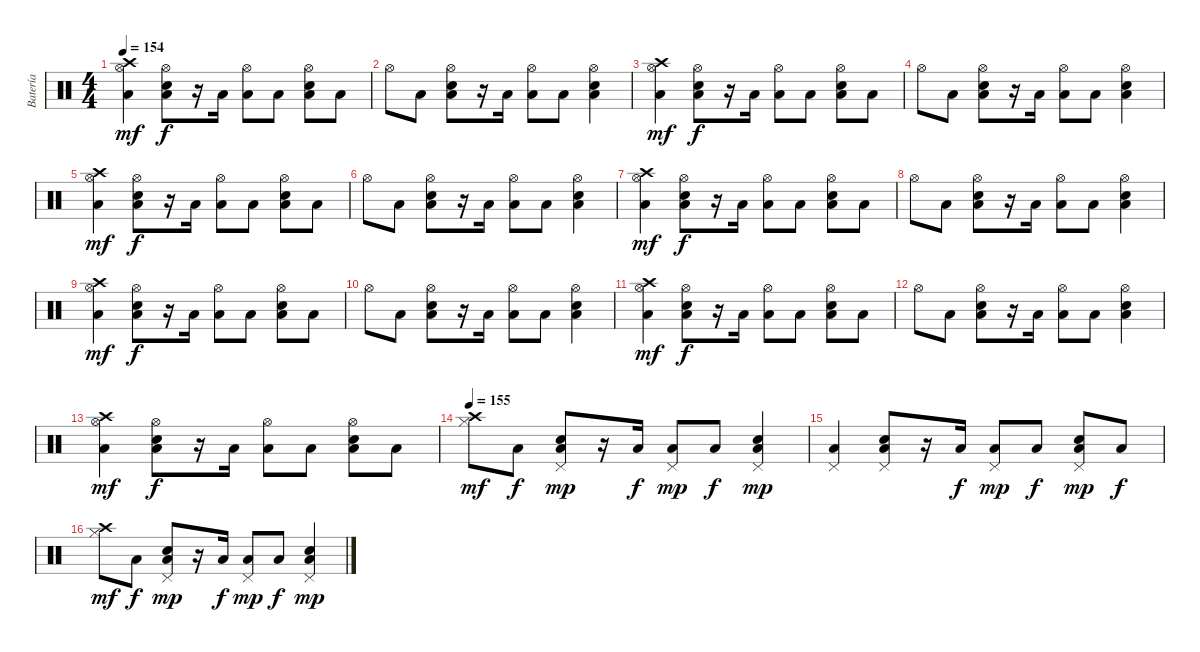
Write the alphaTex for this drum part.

\track ("Batería" "Batería") {instrument percussion}
\staff {score}
\articulation defaults
\ts (4 4)
\tempo 154
\clef neutral
\ks c
("Low Floor Tom (hit)" "Hi-Hat (open)" "Crash high (hit)").4{dy mf} ("Low Floor Tom (hit)" "Snare (hit) 2" "Hi-Hat (open)").8{dy f} r.16 "Low Floor Tom (hit)".16 ("Low Floor Tom (hit)" "Hi-Hat (open)").8 "Low Floor Tom (hit)".8 ("Low Floor Tom (hit)" "Snare (hit) 2" "Hi-Hat (open)").8 "Low Floor Tom (hit)".8 |
"Hi-Hat (open)".8 "Low Floor Tom (hit)".8 ("Low Floor Tom (hit)" "Snare (hit) 2" "Hi-Hat (open)").8 r.16 "Low Floor Tom (hit)".16 ("Low Floor Tom (hit)" "Hi-Hat (open)").8 "Low Floor Tom (hit)".8 ("Low Floor Tom (hit)" "Snare (hit) 2" "Hi-Hat (open)").4 |
("Low Floor Tom (hit)" "Hi-Hat (open)" "Crash high (hit)").4{dy mf} ("Low Floor Tom (hit)" "Snare (hit) 2" "Hi-Hat (open)").8{dy f} r.16 "Low Floor Tom (hit)".16 ("Low Floor Tom (hit)" "Hi-Hat (open)").8 "Low Floor Tom (hit)".8 ("Low Floor Tom (hit)" "Snare (hit) 2" "Hi-Hat (open)").8 "Low Floor Tom (hit)".8 |
"Hi-Hat (open)".8 "Low Floor Tom (hit)".8 ("Low Floor Tom (hit)" "Snare (hit) 2" "Hi-Hat (open)").8 r.16 "Low Floor Tom (hit)".16 ("Low Floor Tom (hit)" "Hi-Hat (open)").8 "Low Floor Tom (hit)".8 ("Low Floor Tom (hit)" "Snare (hit) 2" "Hi-Hat (open)").4 |
("Low Floor Tom (hit)" "Hi-Hat (open)" "Crash high (hit)").4{dy mf} ("Low Floor Tom (hit)" "Snare (hit) 2" "Hi-Hat (open)").8{dy f} r.16 "Low Floor Tom (hit)".16 ("Low Floor Tom (hit)" "Hi-Hat (open)").8 "Low Floor Tom (hit)".8 ("Low Floor Tom (hit)" "Snare (hit) 2" "Hi-Hat (open)").8 "Low Floor Tom (hit)".8 |
"Hi-Hat (open)".8 "Low Floor Tom (hit)".8 ("Low Floor Tom (hit)" "Snare (hit) 2" "Hi-Hat (open)").8 r.16 "Low Floor Tom (hit)".16 ("Low Floor Tom (hit)" "Hi-Hat (open)").8 "Low Floor Tom (hit)".8 ("Low Floor Tom (hit)" "Snare (hit) 2" "Hi-Hat (open)").4 |
("Low Floor Tom (hit)" "Hi-Hat (open)" "Crash high (hit)").4{dy mf} ("Low Floor Tom (hit)" "Snare (hit) 2" "Hi-Hat (open)").8{dy f} r.16 "Low Floor Tom (hit)".16 ("Low Floor Tom (hit)" "Hi-Hat (open)").8 "Low Floor Tom (hit)".8 ("Low Floor Tom (hit)" "Snare (hit) 2" "Hi-Hat (open)").8 "Low Floor Tom (hit)".8 |
"Hi-Hat (open)".8 "Low Floor Tom (hit)".8 ("Low Floor Tom (hit)" "Snare (hit) 2" "Hi-Hat (open)").8 r.16 "Low Floor Tom (hit)".16 ("Low Floor Tom (hit)" "Hi-Hat (open)").8 "Low Floor Tom (hit)".8 ("Low Floor Tom (hit)" "Snare (hit) 2" "Hi-Hat (open)").4 |
("Low Floor Tom (hit)" "Hi-Hat (open)" "Crash high (hit)").4{dy mf} ("Low Floor Tom (hit)" "Snare (hit) 2" "Hi-Hat (open)").8{dy f} r.16 "Low Floor Tom (hit)".16 ("Low Floor Tom (hit)" "Hi-Hat (open)").8 "Low Floor Tom (hit)".8 ("Low Floor Tom (hit)" "Snare (hit) 2" "Hi-Hat (open)").8 "Low Floor Tom (hit)".8 |
"Hi-Hat (open)".8 "Low Floor Tom (hit)".8 ("Low Floor Tom (hit)" "Snare (hit) 2" "Hi-Hat (open)").8 r.16 "Low Floor Tom (hit)".16 ("Low Floor Tom (hit)" "Hi-Hat (open)").8 "Low Floor Tom (hit)".8 ("Low Floor Tom (hit)" "Snare (hit) 2" "Hi-Hat (open)").4 |
("Low Floor Tom (hit)" "Hi-Hat (open)" "Crash high (hit)").4{dy mf} ("Low Floor Tom (hit)" "Snare (hit) 2" "Hi-Hat (open)").8{dy f} r.16 "Low Floor Tom (hit)".16 ("Low Floor Tom (hit)" "Hi-Hat (open)").8 "Low Floor Tom (hit)".8 ("Low Floor Tom (hit)" "Snare (hit) 2" "Hi-Hat (open)").8 "Low Floor Tom (hit)".8 |
"Hi-Hat (open)".8 "Low Floor Tom (hit)".8 ("Low Floor Tom (hit)" "Snare (hit) 2" "Hi-Hat (open)").8 r.16 "Low Floor Tom (hit)".16 ("Low Floor Tom (hit)" "Hi-Hat (open)").8 "Low Floor Tom (hit)".8 ("Low Floor Tom (hit)" "Snare (hit) 2" "Hi-Hat (open)").4 |
("Low Floor Tom (hit)" "Hi-Hat (open)" "Crash high (hit)").4{dy mf} ("Low Floor Tom (hit)" "Snare (hit) 2" "Hi-Hat (open)").8{dy f} r.16 "Low Floor Tom (hit)".16 ("Low Floor Tom (hit)" "Hi-Hat (open)").8 "Low Floor Tom (hit)".8 ("Low Floor Tom (hit)" "Snare (hit) 2" "Hi-Hat (open)").8 "Low Floor Tom (hit)".8 |
\tempo 155
("Hi-Hat (closed)" "Crash high (hit)").8{dy mf} "Low Floor Tom (hit)".8{dy f} ("Low Floor Tom (hit)" "Snare (hit) 2" "Pedal Hi-Hat (hit)").8{dy mp} r.16 "Low Floor Tom (hit)".16{dy f} ("Low Floor Tom (hit)" "Pedal Hi-Hat (hit)").8{dy mp} "Low Floor Tom (hit)".8{dy f} ("Low Floor Tom (hit)" "Snare (hit) 2" "Pedal Hi-Hat (hit)").4{dy mp} |
("Low Floor Tom (hit)" "Pedal Hi-Hat (hit)").4 ("Low Floor Tom (hit)" "Snare (hit) 2" "Pedal Hi-Hat (hit)").8 r.16 "Low Floor Tom (hit)".16{dy f} ("Low Floor Tom (hit)" "Pedal Hi-Hat (hit)").8{dy mp} "Low Floor Tom (hit)".8{dy f} ("Low Floor Tom (hit)" "Snare (hit) 2" "Pedal Hi-Hat (hit)").8{dy mp} "Low Floor Tom (hit)".8{dy f} |
("Hi-Hat (closed)" "Crash high (hit)").8{dy mf} "Low Floor Tom (hit)".8{dy f} ("Low Floor Tom (hit)" "Snare (hit) 2" "Pedal Hi-Hat (hit)").8{dy mp} r.16 "Low Floor Tom (hit)".16{dy f} ("Low Floor Tom (hit)" "Pedal Hi-Hat (hit)").8{dy mp} "Low Floor Tom (hit)".8{dy f} ("Low Floor Tom (hit)" "Snare (hit) 2" "Pedal Hi-Hat (hit)").4{dy mp}
